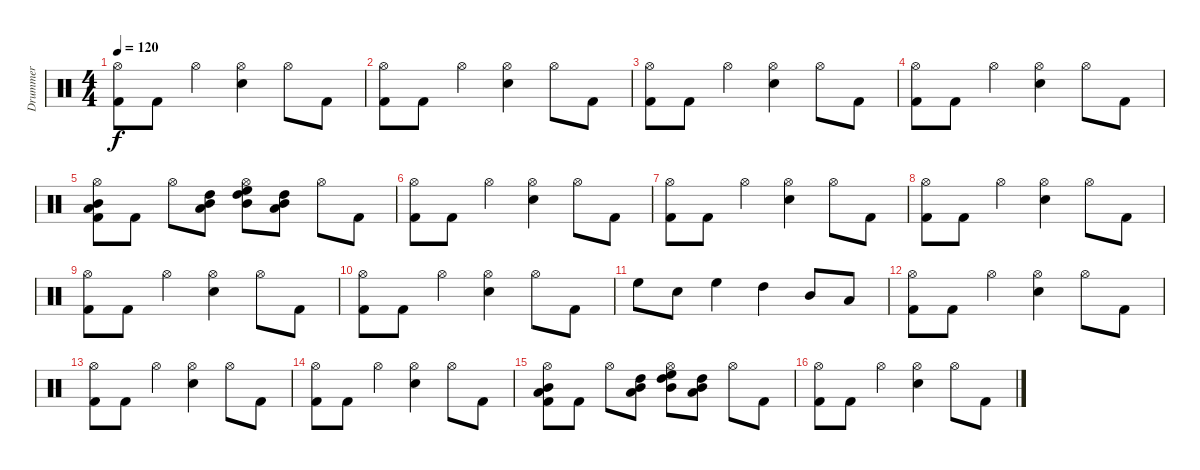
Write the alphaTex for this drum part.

\track ("Drummer" "Drummer") {instrument percussion}
\staff {score}
\articulation defaults
\ts (4 4)
\tempo 120
\clef neutral
\ks c
("Hi-Hat (open)" "Kick (hit) 2").8{dy f} "Kick (hit) 2".8 "Hi-Hat (open)".4 ("Hi-Hat (open)" "Snare (hit) 2").4 "Hi-Hat (open)".8 "Kick (hit) 2".8 |
("Hi-Hat (open)" "Kick (hit) 2").8 "Kick (hit) 2".8 "Hi-Hat (open)".4 ("Hi-Hat (open)" "Snare (hit) 2").4 "Hi-Hat (open)".8 "Kick (hit) 2".8 |
("Hi-Hat (open)" "Kick (hit) 2").8 "Kick (hit) 2".8 "Hi-Hat (open)".4 ("Hi-Hat (open)" "Snare (hit) 2").4 "Hi-Hat (open)".8 "Kick (hit) 2".8 |
("Hi-Hat (open)" "Kick (hit) 2").8 "Kick (hit) 2".8 "Hi-Hat (open)".4 ("Hi-Hat (open)" "Snare (hit) 2").4 "Hi-Hat (open)".8 "Kick (hit) 2".8 |
("Hi-Hat (open)" "Mid Tom (hit)" "Low Tom (hit)" "Kick (hit) 2").8 "Kick (hit) 2".8 "Hi-Hat (open)".8 ("High Tom (hit)" "Mid Tom (hit)" "Low Tom (hit)").8 ("Hi-Hat (open)" "High Floor Tom (hit)" "High Tom (hit)" "Mid Tom (hit)").8 ("High Tom (hit)" "Mid Tom (hit)" "Low Tom (hit)").8 "Hi-Hat (open)".8 "Kick (hit) 2".8 |
("Hi-Hat (open)" "Kick (hit) 2").8 "Kick (hit) 2".8 "Hi-Hat (open)".4 ("Hi-Hat (open)" "Snare (hit) 2").4 "Hi-Hat (open)".8 "Kick (hit) 2".8 |
("Hi-Hat (open)" "Kick (hit) 2").8 "Kick (hit) 2".8 "Hi-Hat (open)".4 ("Hi-Hat (open)" "Snare (hit) 2").4 "Hi-Hat (open)".8 "Kick (hit) 2".8 |
("Hi-Hat (open)" "Kick (hit) 2").8 "Kick (hit) 2".8 "Hi-Hat (open)".4 ("Hi-Hat (open)" "Snare (hit) 2").4 "Hi-Hat (open)".8 "Kick (hit) 2".8 |
("Hi-Hat (open)" "Kick (hit) 2").8 "Kick (hit) 2".8 "Hi-Hat (open)".4 ("Hi-Hat (open)" "Snare (hit) 2").4 "Hi-Hat (open)".8 "Kick (hit) 2".8 |
("Hi-Hat (open)" "Kick (hit) 2").8 "Kick (hit) 2".8 "Hi-Hat (open)".4 ("Hi-Hat (open)" "Snare (hit) 2").4 "Hi-Hat (open)".8 "Kick (hit) 2".8 |
"High Floor Tom (hit)".8 "Snare (hit) 2".8 "High Floor Tom (hit)".4 "High Tom (hit)".4 "Mid Tom (hit)".8 "Low Tom (hit)".8 |
("Hi-Hat (open)" "Kick (hit) 2").8 "Kick (hit) 2".8 "Hi-Hat (open)".4 ("Hi-Hat (open)" "Snare (hit) 2").4 "Hi-Hat (open)".8 "Kick (hit) 2".8 |
("Hi-Hat (open)" "Kick (hit) 2").8 "Kick (hit) 2".8 "Hi-Hat (open)".4 ("Hi-Hat (open)" "Snare (hit) 2").4 "Hi-Hat (open)".8 "Kick (hit) 2".8 |
("Hi-Hat (open)" "Kick (hit) 2").8 "Kick (hit) 2".8 "Hi-Hat (open)".4 ("Hi-Hat (open)" "Snare (hit) 2").4 "Hi-Hat (open)".8 "Kick (hit) 2".8 |
("Hi-Hat (open)" "Mid Tom (hit)" "Low Tom (hit)" "Kick (hit) 2").8 "Kick (hit) 2".8 "Hi-Hat (open)".8 ("High Tom (hit)" "Mid Tom (hit)" "Low Tom (hit)").8 ("Hi-Hat (open)" "High Floor Tom (hit)" "High Tom (hit)" "Mid Tom (hit)").8 ("High Tom (hit)" "Mid Tom (hit)" "Low Tom (hit)").8 "Hi-Hat (open)".8 "Kick (hit) 2".8 |
("Hi-Hat (open)" "Kick (hit) 2").8 "Kick (hit) 2".8 "Hi-Hat (open)".4 ("Hi-Hat (open)" "Snare (hit) 2").4 "Hi-Hat (open)".8 "Kick (hit) 2".8
